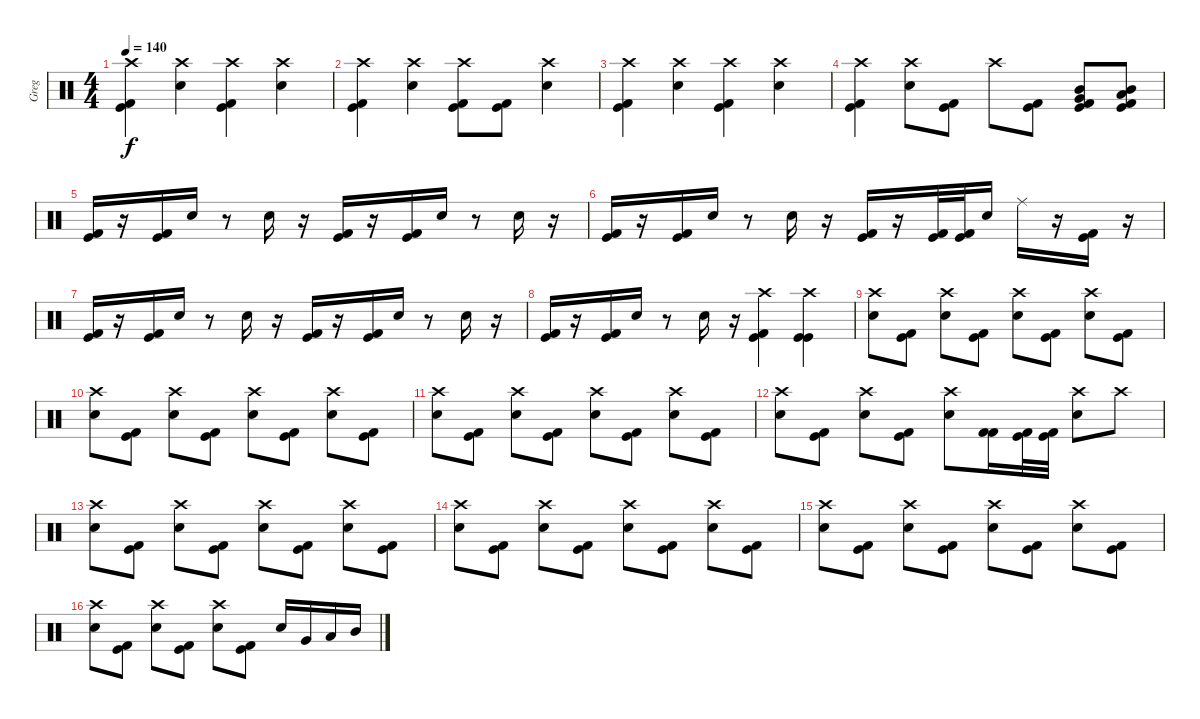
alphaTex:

\track ("Greg" "Greg") {instrument percussion}
\staff {score}
\articulation defaults
\ts (4 4)
\tempo 140
\clef neutral
\ks c
("Crash high (hit)" "Kick (hit)" "Kick (hit) 2").4{dy f} ("Crash high (hit)" "Snare (hit) 2").4 ("Crash high (hit)" "Kick (hit)" "Kick (hit) 2").4 ("Crash high (hit)" "Snare (hit) 2").4 |
("Crash high (hit)" "Kick (hit)" "Kick (hit) 2").4 ("Crash high (hit)" "Snare (hit) 2").4 ("Crash high (hit)" "Kick (hit)" "Kick (hit) 2").8 ("Kick (hit)" "Kick (hit) 2").8 ("Crash high (hit)" "Snare (hit) 2").4 |
("Crash high (hit)" "Kick (hit)" "Kick (hit) 2").4 ("Crash high (hit)" "Snare (hit) 2").4 ("Crash high (hit)" "Kick (hit)" "Kick (hit) 2").4 ("Crash high (hit)" "Snare (hit) 2").4 |
("Crash high (hit)" "Kick (hit)" "Kick (hit) 2").4 ("Crash high (hit)" "Snare (hit) 2").8 ("Kick (hit)" "Kick (hit) 2").8 "Crash high (hit)".8 ("Kick (hit)" "Kick (hit) 2").8 ("Very Low Tom (hit)" "Mid Tom (hit)" "Kick (hit)" "Kick (hit) 2").8 ("Low Tom (hit)" "Mid Tom (hit)" "Kick (hit)" "Kick (hit) 2").8 |
("Kick (hit)" "Kick (hit) 2").16 r.16 ("Kick (hit)" "Kick (hit) 2").16 "Snare (hit) 2".16 r.8 "Snare (hit) 2".16 r.16 ("Kick (hit)" "Kick (hit) 2").16 r.16 ("Kick (hit)" "Kick (hit) 2").16 "Snare (hit) 2".16 r.8 "Snare (hit) 2".16 r.16 |
("Kick (hit)" "Kick (hit) 2").16 r.16 ("Kick (hit)" "Kick (hit) 2").16 "Snare (hit) 2".16 r.8 "Snare (hit) 2".16 r.16 ("Kick (hit)" "Kick (hit) 2").16 r.16 ("Kick (hit)" "Kick (hit) 2").32 ("Kick (hit)" "Kick (hit) 2").32 "Snare (hit) 2".16 "Ride (middle)".16 r.16 ("Kick (hit)" "Kick (hit) 2").16 r.16 |
("Kick (hit)" "Kick (hit) 2").16 r.16 ("Kick (hit)" "Kick (hit) 2").16 "Snare (hit) 2".16 r.8 "Snare (hit) 2".16 r.16 ("Kick (hit)" "Kick (hit) 2").16 r.16 ("Kick (hit)" "Kick (hit) 2").16 "Snare (hit) 2".16 r.8 "Snare (hit) 2".16 r.16 |
("Kick (hit)" "Kick (hit) 2").16 r.16 ("Kick (hit)" "Kick (hit) 2").16 "Snare (hit) 2".16 r.8 "Snare (hit) 2".16 r.16 ("Crash high (hit)" "Kick (hit)" "Kick (hit) 2").4 ("Crash high (hit)" "Kick (hit)" "Kick (hit)").4 |
("Crash high (hit)" "Snare (hit) 2").8 ("Kick (hit)" "Kick (hit) 2").8 ("Crash high (hit)" "Snare (hit) 2").8 ("Kick (hit)" "Kick (hit) 2").8 ("Crash high (hit)" "Snare (hit) 2").8 ("Kick (hit)" "Kick (hit) 2").8 ("Crash high (hit)" "Snare (hit) 2").8 ("Kick (hit)" "Kick (hit) 2").8 |
("Crash high (hit)" "Snare (hit) 2").8 ("Kick (hit)" "Kick (hit) 2").8 ("Crash high (hit)" "Snare (hit) 2").8 ("Kick (hit)" "Kick (hit) 2").8 ("Crash high (hit)" "Snare (hit) 2").8 ("Kick (hit)" "Kick (hit) 2").8 ("Crash high (hit)" "Snare (hit) 2").8 ("Kick (hit)" "Kick (hit) 2").8 |
("Crash high (hit)" "Snare (hit) 2").8 ("Kick (hit)" "Kick (hit) 2").8 ("Crash high (hit)" "Snare (hit) 2").8 ("Kick (hit)" "Kick (hit) 2").8 ("Crash high (hit)" "Snare (hit) 2").8 ("Kick (hit)" "Kick (hit) 2").8 ("Crash high (hit)" "Snare (hit) 2").8 ("Kick (hit)" "Kick (hit) 2").8 |
("Crash high (hit)" "Snare (hit) 2").8 ("Kick (hit)" "Kick (hit) 2").8 ("Crash high (hit)" "Snare (hit) 2").8 ("Kick (hit)" "Kick (hit) 2").8 ("Crash high (hit)" "Snare (hit) 2").8 ("Kick (hit) 2" "Kick (hit) 2").16 ("Kick (hit)" "Kick (hit) 2").32 ("Kick (hit)" "Kick (hit) 2").32 ("Crash high (hit)" "Snare (hit) 2").8 "Crash high (hit)".8 |
("Crash high (hit)" "Snare (hit) 2").8 ("Kick (hit)" "Kick (hit) 2").8 ("Crash high (hit)" "Snare (hit) 2").8 ("Kick (hit)" "Kick (hit) 2").8 ("Crash high (hit)" "Snare (hit) 2").8 ("Kick (hit)" "Kick (hit) 2").8 ("Crash high (hit)" "Snare (hit) 2").8 ("Kick (hit)" "Kick (hit) 2").8 |
("Crash high (hit)" "Snare (hit) 2").8 ("Kick (hit)" "Kick (hit) 2").8 ("Crash high (hit)" "Snare (hit) 2").8 ("Kick (hit)" "Kick (hit) 2").8 ("Crash high (hit)" "Snare (hit) 2").8 ("Kick (hit)" "Kick (hit) 2").8 ("Crash high (hit)" "Snare (hit) 2").8 ("Kick (hit)" "Kick (hit) 2").8 |
("Crash high (hit)" "Snare (hit) 2").8 ("Kick (hit)" "Kick (hit) 2").8 ("Crash high (hit)" "Snare (hit) 2").8 ("Kick (hit)" "Kick (hit) 2").8 ("Crash high (hit)" "Snare (hit) 2").8 ("Kick (hit)" "Kick (hit) 2").8 ("Crash high (hit)" "Snare (hit) 2").8 ("Kick (hit)" "Kick (hit) 2").8 |
("Crash high (hit)" "Snare (hit) 2").8 ("Kick (hit)" "Kick (hit) 2").8 ("Crash high (hit)" "Snare (hit) 2").8 ("Kick (hit)" "Kick (hit) 2").8 ("Crash high (hit)" "Snare (hit) 2").8 ("Kick (hit)" "Kick (hit) 2").8 "Snare (hit) 2".16 "Very Low Tom (hit)".16 "Low Tom (hit)".16 "Mid Tom (hit)".16
